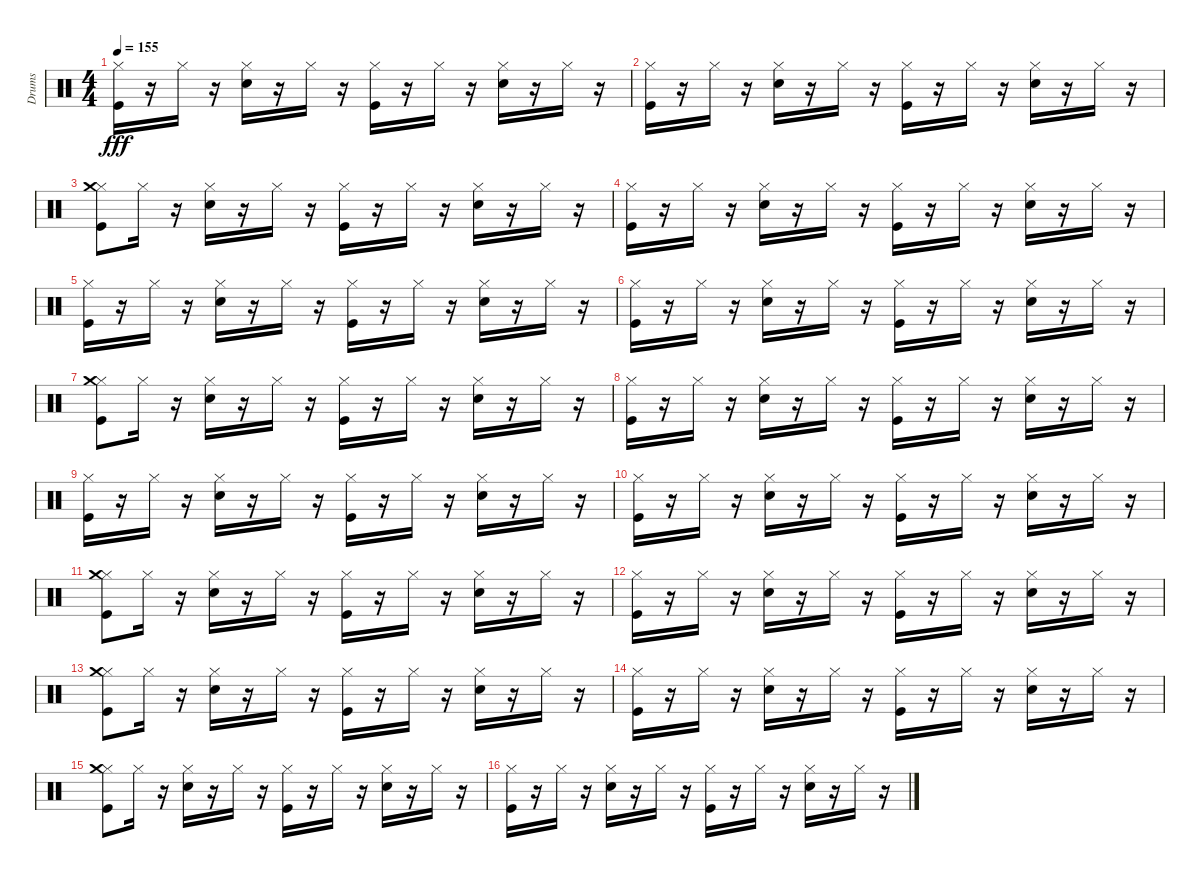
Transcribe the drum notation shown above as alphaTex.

\track ("Drums" "Drums") {instrument percussion}
\staff {score}
\articulation defaults
\ts (4 4)
\tempo 155
\clef neutral
\ks c
("Kick (hit)" "Hi-Hat (closed)").16{dy fff} r.16 "Hi-Hat (closed)".16 r.16 ("Snare (hit) 2" "Hi-Hat (closed)").16 r.16 "Hi-Hat (closed)".16 r.16 ("Kick (hit)" "Hi-Hat (closed)").16 r.16 "Hi-Hat (closed)".16 r.16 ("Snare (hit) 2" "Hi-Hat (closed)").16 r.16 "Hi-Hat (closed)".16 r.16 |
("Hi-Hat (closed)" "Kick (hit)").16 r.16 "Hi-Hat (closed)".16 r.16 ("Hi-Hat (closed)" "Snare (hit) 2").16 r.16 "Hi-Hat (closed)".16 r.16 ("Hi-Hat (closed)" "Kick (hit)").16 r.16 "Hi-Hat (closed)".16 r.16 ("Hi-Hat (closed)" "Snare (hit) 2").16 r.16 "Hi-Hat (closed)".16 r.16 |
("Kick (hit)" "Hi-Hat (closed)" "Crash medium (hit)").8 "Hi-Hat (closed)".16 r.16 ("Snare (hit) 2" "Hi-Hat (closed)").16 r.16 "Hi-Hat (closed)".16 r.16 ("Kick (hit)" "Hi-Hat (closed)").16 r.16 "Hi-Hat (closed)".16 r.16 ("Snare (hit) 2" "Hi-Hat (closed)").16 r.16 "Hi-Hat (closed)".16 r.16 |
("Hi-Hat (closed)" "Kick (hit)").16 r.16 "Hi-Hat (closed)".16 r.16 ("Hi-Hat (closed)" "Snare (hit) 2").16 r.16 "Hi-Hat (closed)".16 r.16 ("Hi-Hat (closed)" "Kick (hit)").16 r.16 "Hi-Hat (closed)".16 r.16 ("Hi-Hat (closed)" "Snare (hit) 2").16 r.16 "Hi-Hat (closed)".16 r.16 |
("Kick (hit)" "Hi-Hat (closed)").16 r.16 "Hi-Hat (closed)".16 r.16 ("Snare (hit) 2" "Hi-Hat (closed)").16 r.16 "Hi-Hat (closed)".16 r.16 ("Kick (hit)" "Hi-Hat (closed)").16 r.16 "Hi-Hat (closed)".16 r.16 ("Snare (hit) 2" "Hi-Hat (closed)").16 r.16 "Hi-Hat (closed)".16 r.16 |
("Hi-Hat (closed)" "Kick (hit)").16 r.16 "Hi-Hat (closed)".16 r.16 ("Hi-Hat (closed)" "Snare (hit) 2").16 r.16 "Hi-Hat (closed)".16 r.16 ("Hi-Hat (closed)" "Kick (hit)").16 r.16 "Hi-Hat (closed)".16 r.16 ("Hi-Hat (closed)" "Snare (hit) 2").16 r.16 "Hi-Hat (closed)".16 r.16 |
("Kick (hit)" "Hi-Hat (closed)" "Crash medium (hit)").8 "Hi-Hat (closed)".16 r.16 ("Snare (hit) 2" "Hi-Hat (closed)").16 r.16 "Hi-Hat (closed)".16 r.16 ("Kick (hit)" "Hi-Hat (closed)").16 r.16 "Hi-Hat (closed)".16 r.16 ("Snare (hit) 2" "Hi-Hat (closed)").16 r.16 "Hi-Hat (closed)".16 r.16 |
("Hi-Hat (closed)" "Kick (hit)").16 r.16 "Hi-Hat (closed)".16 r.16 ("Hi-Hat (closed)" "Snare (hit) 2").16 r.16 "Hi-Hat (closed)".16 r.16 ("Hi-Hat (closed)" "Kick (hit)").16 r.16 "Hi-Hat (closed)".16 r.16 ("Hi-Hat (closed)" "Snare (hit) 2").16 r.16 "Hi-Hat (closed)".16 r.16 |
("Kick (hit)" "Hi-Hat (closed)").16 r.16 "Hi-Hat (closed)".16 r.16 ("Snare (hit) 2" "Hi-Hat (closed)").16 r.16 "Hi-Hat (closed)".16 r.16 ("Kick (hit)" "Hi-Hat (closed)").16 r.16 "Hi-Hat (closed)".16 r.16 ("Snare (hit) 2" "Hi-Hat (closed)").16 r.16 "Hi-Hat (closed)".16 r.16 |
("Hi-Hat (closed)" "Kick (hit)").16 r.16 "Hi-Hat (closed)".16 r.16 ("Hi-Hat (closed)" "Snare (hit) 2").16 r.16 "Hi-Hat (closed)".16 r.16 ("Hi-Hat (closed)" "Kick (hit)").16 r.16 "Hi-Hat (closed)".16 r.16 ("Hi-Hat (closed)" "Snare (hit) 2").16 r.16 "Hi-Hat (closed)".16 r.16 |
("Kick (hit)" "Hi-Hat (closed)" "Crash medium (hit)").8 "Hi-Hat (closed)".16 r.16 ("Snare (hit) 2" "Hi-Hat (closed)").16 r.16 "Hi-Hat (closed)".16 r.16 ("Kick (hit)" "Hi-Hat (closed)").16 r.16 "Hi-Hat (closed)".16 r.16 ("Snare (hit) 2" "Hi-Hat (closed)").16 r.16 "Hi-Hat (closed)".16 r.16 |
("Hi-Hat (closed)" "Kick (hit)").16 r.16 "Hi-Hat (closed)".16 r.16 ("Hi-Hat (closed)" "Snare (hit) 2").16 r.16 "Hi-Hat (closed)".16 r.16 ("Hi-Hat (closed)" "Kick (hit)").16 r.16 "Hi-Hat (closed)".16 r.16 ("Hi-Hat (closed)" "Snare (hit) 2").16 r.16 "Hi-Hat (closed)".16 r.16 |
("Kick (hit)" "Hi-Hat (closed)" "Crash medium (hit)").8 "Hi-Hat (closed)".16 r.16 ("Snare (hit) 2" "Hi-Hat (closed)").16 r.16 "Hi-Hat (closed)".16 r.16 ("Kick (hit)" "Hi-Hat (closed)").16 r.16 "Hi-Hat (closed)".16 r.16 ("Snare (hit) 2" "Hi-Hat (closed)").16 r.16 "Hi-Hat (closed)".16 r.16 |
("Hi-Hat (closed)" "Kick (hit)").16 r.16 "Hi-Hat (closed)".16 r.16 ("Hi-Hat (closed)" "Snare (hit) 2").16 r.16 "Hi-Hat (closed)".16 r.16 ("Hi-Hat (closed)" "Kick (hit)").16 r.16 "Hi-Hat (closed)".16 r.16 ("Hi-Hat (closed)" "Snare (hit) 2").16 r.16 "Hi-Hat (closed)".16 r.16 |
("Kick (hit)" "Hi-Hat (closed)" "Crash medium (hit)").8 "Hi-Hat (closed)".16 r.16 ("Snare (hit) 2" "Hi-Hat (closed)").16 r.16 "Hi-Hat (closed)".16 r.16 ("Kick (hit)" "Hi-Hat (closed)").16 r.16 "Hi-Hat (closed)".16 r.16 ("Snare (hit) 2" "Hi-Hat (closed)").16 r.16 "Hi-Hat (closed)".16 r.16 |
("Hi-Hat (closed)" "Kick (hit)").16 r.16 "Hi-Hat (closed)".16 r.16 ("Hi-Hat (closed)" "Snare (hit) 2").16 r.16 "Hi-Hat (closed)".16 r.16 ("Hi-Hat (closed)" "Kick (hit)").16 r.16 "Hi-Hat (closed)".16 r.16 ("Hi-Hat (closed)" "Snare (hit) 2").16 r.16 "Hi-Hat (closed)".16 r.16
